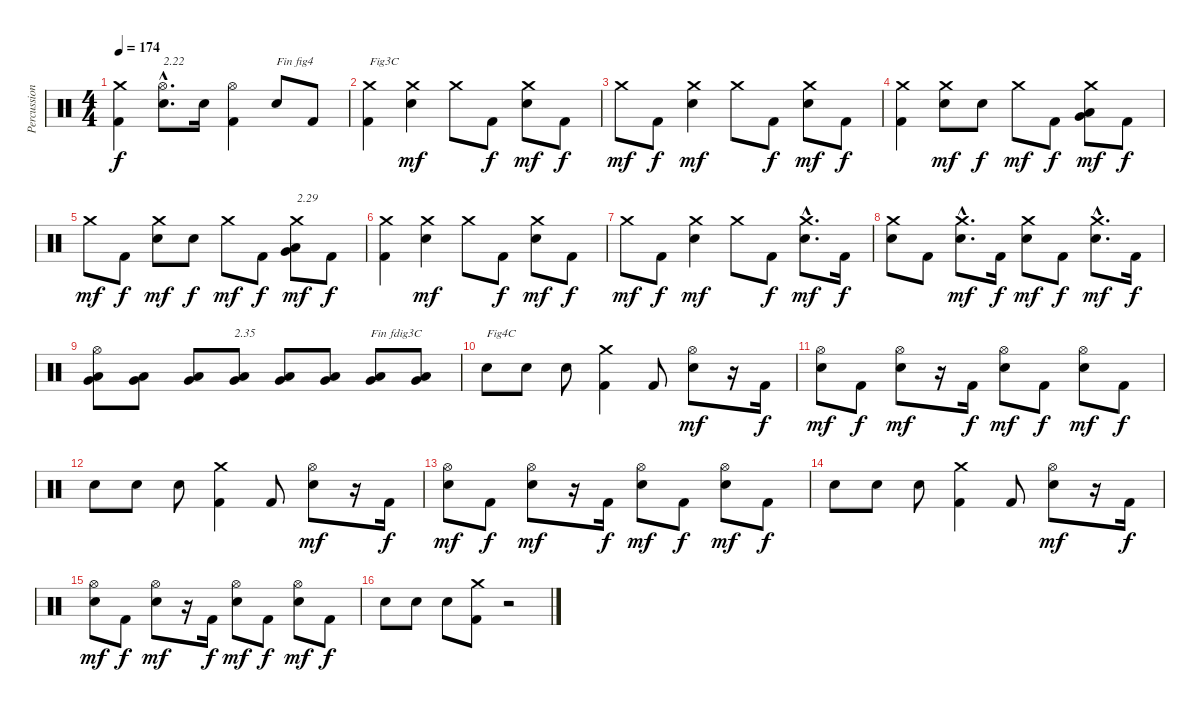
\track ("Percussions" "Percussion") {instrument percussion}
\staff {score}
\articulation defaults
\ts (4 4)
\tempo 174
\clef neutral
\ks c
("Kick (hit) 2" "Crash medium (hit)").4{dy f} ("Electric Snare (hit)"{hac} "Hi-Hat (open)"{hac}).8{d txt "2.22"} "Electric Snare (hit)".16 ("Kick (hit) 2" "Hi-Hat (open)").4 "Electric Snare (hit)".8{txt "Fin fig4"} "Kick (hit) 2".8 |
("Kick (hit) 2" "Crash medium (hit)").4{txt "Fig3C"} ("Electric Snare (hit)" "Crash medium (hit)").4{dy mf} "Crash medium (hit)".8 "Kick (hit) 2".8{dy f} ("Electric Snare (hit)" "Crash medium (hit)").8{dy mf} "Kick (hit) 2".8{dy f} |
"Crash medium (hit)".8{dy mf} "Kick (hit) 2".8{dy f} ("Electric Snare (hit)" "Crash medium (hit)").4{dy mf} "Crash medium (hit)".8 "Kick (hit) 2".8{dy f} ("Electric Snare (hit)" "Crash medium (hit)").8{dy mf} "Kick (hit) 2".8{dy f} |
("Kick (hit) 2" "Crash medium (hit)").4 ("Electric Snare (hit)" "Crash medium (hit)").8{dy mf} "Electric Snare (hit)".8{dy f} "Crash medium (hit)".8{dy mf} "Kick (hit) 2".8{dy f} ("Very Low Tom (hit)" "Low Floor Tom (hit)" "Crash medium (hit)").8{dy mf} "Kick (hit) 2".8{dy f} |
"Crash medium (hit)".8{dy mf} "Kick (hit) 2".8{dy f} ("Electric Snare (hit)" "Crash medium (hit)").8{dy mf} "Electric Snare (hit)".8{dy f} "Crash medium (hit)".8{dy mf} "Kick (hit) 2".8{dy f} ("Low Tom (hit)" "Very Low Tom (hit)" "Crash medium (hit)").8{txt "2.29" dy mf} "Kick (hit) 2".8{dy f} |
("Kick (hit) 2" "Crash medium (hit)").4 ("Electric Snare (hit)" "Crash medium (hit)").4{dy mf} "Crash medium (hit)".8 "Kick (hit) 2".8{dy f} ("Electric Snare (hit)" "Crash medium (hit)").8{dy mf} "Kick (hit) 2".8{dy f} |
"Crash medium (hit)".8{dy mf} "Kick (hit) 2".8{dy f} ("Electric Snare (hit)" "Crash medium (hit)").4{dy mf} "Crash medium (hit)".8 "Kick (hit) 2".8{dy f} ("Electric Snare (hit)"{hac} "Crash medium (hit)"{hac}).8{d dy mf} "Kick (hit) 2".16{dy f} |
("Electric Snare (hit)" "Crash medium (hit)").8 "Kick (hit) 2".8 ("Electric Snare (hit)"{hac} "Crash medium (hit)"{hac}).8{d dy mf} "Kick (hit) 2".16{dy f} ("Electric Snare (hit)" "Crash medium (hit)").8{dy mf} "Kick (hit) 2".8{dy f} ("Electric Snare (hit)"{hac} "Crash medium (hit)"{hac}).8{d dy mf} "Kick (hit) 2".16{dy f} |
("Low Floor Tom (hit)" "Very Low Tom (hit)" "Hi-Hat (open)").8 ("Low Floor Tom (hit)" "Very Low Tom (hit)").8 ("Low Floor Tom (hit)" "Very Low Tom (hit)").8 ("Low Floor Tom (hit)" "Very Low Tom (hit)").8{txt "2.35"} ("Low Floor Tom (hit)" "Very Low Tom (hit)").8 ("Low Floor Tom (hit)" "Very Low Tom (hit)").8 ("Low Floor Tom (hit)" "Very Low Tom (hit)").8{txt "Fin fdig3C"} ("Low Floor Tom (hit)" "Very Low Tom (hit)").8 |
"Electric Snare (hit)".8{txt "Fig4C"} "Electric Snare (hit)".8 "Electric Snare (hit)".8 ("Kick (hit) 2" "Crash medium (hit)").4 "Kick (hit) 2".8 ("Electric Snare (hit)" "Hi-Hat (open)").8{dy mf} r.16 "Kick (hit) 2".16{dy f} |
("Electric Snare (hit)" "Hi-Hat (open)").8{dy mf} "Kick (hit) 2".8{dy f} ("Electric Snare (hit)" "Hi-Hat (open)").8{dy mf} r.16 "Kick (hit) 2".16{dy f} ("Electric Snare (hit)" "Hi-Hat (open)").8{dy mf} "Kick (hit) 2".8{dy f} ("Electric Snare (hit)" "Hi-Hat (open)").8{dy mf} "Kick (hit) 2".8{dy f} |
"Electric Snare (hit)".8 "Electric Snare (hit)".8 "Electric Snare (hit)".8 ("Kick (hit) 2" "Crash medium (hit)").4 "Kick (hit) 2".8 ("Electric Snare (hit)" "Hi-Hat (open)").8{dy mf} r.16 "Kick (hit) 2".16{dy f} |
("Electric Snare (hit)" "Hi-Hat (open)").8{dy mf} "Kick (hit) 2".8{dy f} ("Electric Snare (hit)" "Hi-Hat (open)").8{dy mf} r.16 "Kick (hit) 2".16{dy f} ("Electric Snare (hit)" "Hi-Hat (open)").8{dy mf} "Kick (hit) 2".8{dy f} ("Electric Snare (hit)" "Hi-Hat (open)").8{dy mf} "Kick (hit) 2".8{dy f} |
"Electric Snare (hit)".8 "Electric Snare (hit)".8 "Electric Snare (hit)".8 ("Kick (hit) 2" "Crash medium (hit)").4 "Kick (hit) 2".8 ("Electric Snare (hit)" "Hi-Hat (open)").8{dy mf} r.16 "Kick (hit) 2".16{dy f} |
("Electric Snare (hit)" "Hi-Hat (open)").8{dy mf} "Kick (hit) 2".8{dy f} ("Electric Snare (hit)" "Hi-Hat (open)").8{dy mf} r.16 "Kick (hit) 2".16{dy f} ("Electric Snare (hit)" "Hi-Hat (open)").8{dy mf} "Kick (hit) 2".8{dy f} ("Electric Snare (hit)" "Hi-Hat (open)").8{dy mf} "Kick (hit) 2".8{dy f} |
"Electric Snare (hit)".8 "Electric Snare (hit)".8 "Electric Snare (hit)".8 ("Kick (hit) 2" "Crash medium (hit)").8 r.2
